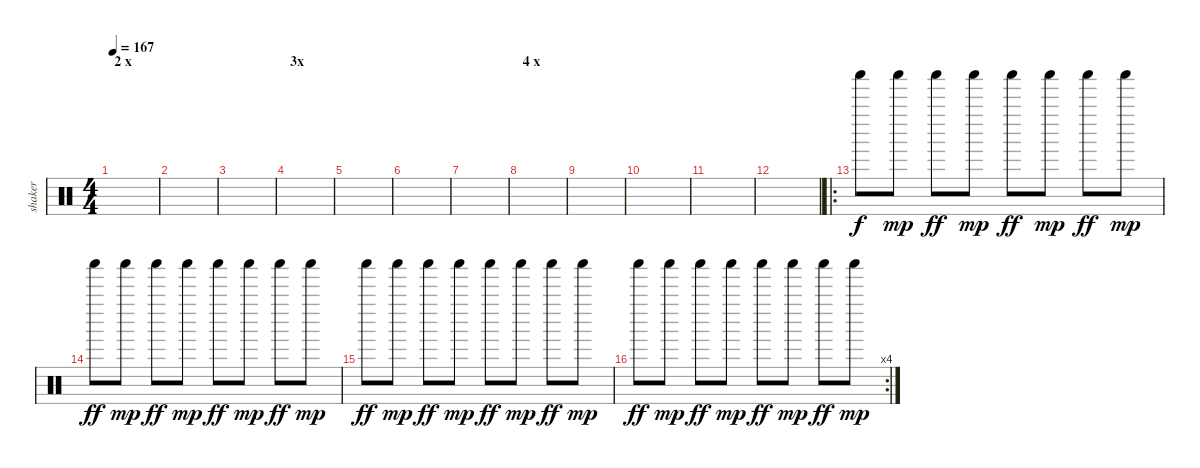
\track ("shaker" "shaker") {instrument percussion}
\staff {score}
\articulation defaults
\ts (4 4)
\section ("" "2 x")
\tempo 167
\clef neutral
\ks c
|
|
|
\section ("" "3x")
|
|
|
|
\section ("" "4 x")
|
|
|
|
|
\ro "Shaker (hit)".8 "Shaker (hit)".8{dy mp} "Shaker (hit)".8{dy ff} "Shaker (hit)".8{dy mp} "Shaker (hit)".8{dy ff} "Shaker (hit)".8{dy mp} "Shaker (hit)".8{dy ff} "Shaker (hit)".8{dy mp}
|
"Shaker (hit)".8{dy ff} "Shaker (hit)".8{dy mp} "Shaker (hit)".8{dy ff} "Shaker (hit)".8{dy mp} "Shaker (hit)".8{dy ff} "Shaker (hit)".8{dy mp} "Shaker (hit)".8{dy ff} "Shaker (hit)".8{dy mp} |
"Shaker (hit)".8{dy ff} "Shaker (hit)".8{dy mp} "Shaker (hit)".8{dy ff} "Shaker (hit)".8{dy mp} "Shaker (hit)".8{dy ff} "Shaker (hit)".8{dy mp} "Shaker (hit)".8{dy ff} "Shaker (hit)".8{dy mp} |
\rc 4 "Shaker (hit)".8{dy ff} "Shaker (hit)".8{dy mp} "Shaker (hit)".8{dy ff} "Shaker (hit)".8{dy mp} "Shaker (hit)".8{dy ff} "Shaker (hit)".8{dy mp} "Shaker (hit)".8{dy ff} "Shaker (hit)".8{dy mp}
